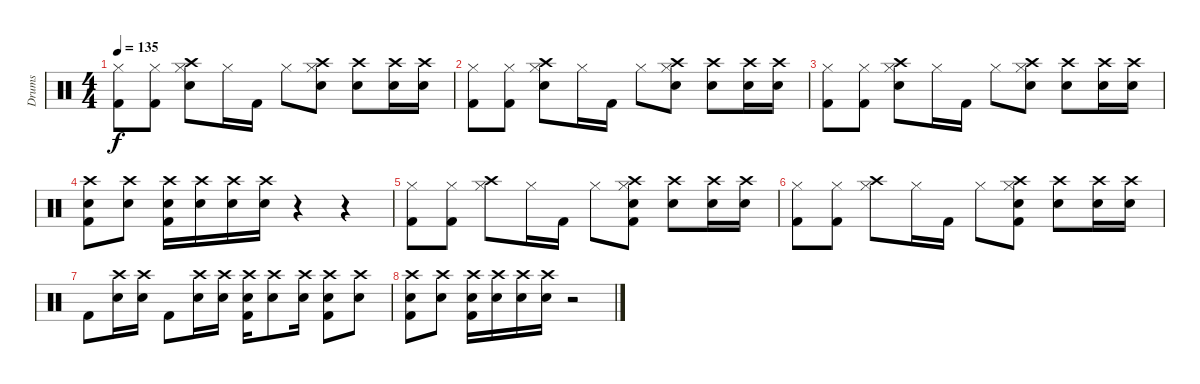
\track ("Drums" "Drums") {instrument percussion}
\staff {score}
\articulation defaults
\ts (4 4)
\tempo 135
\clef neutral
\ks c
("Hi-Hat (closed)" "Kick (hit) 2").8{dy f} ("Hi-Hat (closed)" "Kick (hit) 2").8 ("Crash high (hit)" "Hi-Hat (closed)" "Snare (hit) 2").8 "Hi-Hat (closed)".16 "Kick (hit) 2".16 "Hi-Hat (closed)".8 ("Crash high (hit)" "Hi-Hat (closed)" "Snare (hit) 2").8 ("Crash high (hit)" "Snare (hit) 2").8 ("Crash high (hit)" "Snare (hit) 2").16 ("Crash high (hit)" "Snare (hit) 2").16 |
("Hi-Hat (closed)" "Kick (hit) 2").8 ("Hi-Hat (closed)" "Kick (hit) 2").8 ("Crash high (hit)" "Hi-Hat (closed)" "Snare (hit) 2").8 "Hi-Hat (closed)".16 "Kick (hit) 2".16 "Hi-Hat (closed)".8 ("Crash high (hit)" "Hi-Hat (closed)" "Snare (hit) 2").8 ("Crash high (hit)" "Snare (hit) 2").8 ("Crash high (hit)" "Snare (hit) 2").16 ("Crash high (hit)" "Snare (hit) 2").16 |
("Hi-Hat (closed)" "Kick (hit) 2").8 ("Hi-Hat (closed)" "Kick (hit) 2").8 ("Crash high (hit)" "Hi-Hat (closed)" "Snare (hit) 2").8 "Hi-Hat (closed)".16 "Kick (hit) 2".16 "Hi-Hat (closed)".8 ("Crash high (hit)" "Hi-Hat (closed)" "Snare (hit) 2").8 ("Crash high (hit)" "Snare (hit) 2").8 ("Crash high (hit)" "Snare (hit) 2").16 ("Crash high (hit)" "Snare (hit) 2").16 |
("Crash high (hit)" "Snare (hit) 2" "Kick (hit) 2").8 ("Crash high (hit)" "Snare (hit) 2").8 ("Crash high (hit)" "Snare (hit) 2" "Kick (hit) 2").16 ("Crash high (hit)" "Snare (hit) 2").16 ("Crash high (hit)" "Snare (hit) 2").16 ("Crash high (hit)" "Snare (hit) 2").16 r.4 r.4 |
("Hi-Hat (closed)" "Kick (hit) 2").8 ("Hi-Hat (closed)" "Kick (hit) 2").8 ("Crash high (hit)" "Hi-Hat (closed)").8 "Hi-Hat (closed)".16 "Kick (hit) 2".16 "Hi-Hat (closed)".8 ("Crash high (hit)" "Hi-Hat (closed)" "Snare (hit) 2" "Kick (hit) 2").8 ("Crash high (hit)" "Snare (hit) 2").8 ("Crash high (hit)" "Snare (hit) 2").16 ("Crash high (hit)" "Snare (hit) 2").16 |
("Hi-Hat (closed)" "Kick (hit) 2").8 ("Hi-Hat (closed)" "Kick (hit) 2").8 ("Crash high (hit)" "Hi-Hat (closed)").8 "Hi-Hat (closed)".16 "Kick (hit) 2".16 "Hi-Hat (closed)".8 ("Crash high (hit)" "Hi-Hat (closed)" "Snare (hit) 2" "Kick (hit) 2").8 ("Crash high (hit)" "Snare (hit) 2").8 ("Crash high (hit)" "Snare (hit) 2").16 ("Crash high (hit)" "Snare (hit) 2").16 |
"Kick (hit) 2".8 ("Crash high (hit)" "Snare (hit) 2").16 ("Crash high (hit)" "Snare (hit) 2").16 "Kick (hit) 2".8 ("Crash high (hit)" "Snare (hit) 2").16 ("Crash high (hit)" "Snare (hit) 2").16 ("Crash high (hit)" "Snare (hit) 2" "Kick (hit) 2").16 ("Crash high (hit)" "Snare (hit) 2").8 ("Crash high (hit)" "Snare (hit) 2").16 ("Crash high (hit)" "Snare (hit) 2" "Kick (hit) 2").8 ("Crash high (hit)" "Snare (hit) 2").8 |
("Crash high (hit)" "Snare (hit) 2" "Kick (hit) 2").8 ("Crash high (hit)" "Snare (hit) 2").8 ("Crash high (hit)" "Snare (hit) 2" "Kick (hit) 2").16 ("Crash high (hit)" "Snare (hit) 2").16 ("Crash high (hit)" "Snare (hit) 2").16 ("Crash high (hit)" "Snare (hit) 2").16 r.2
